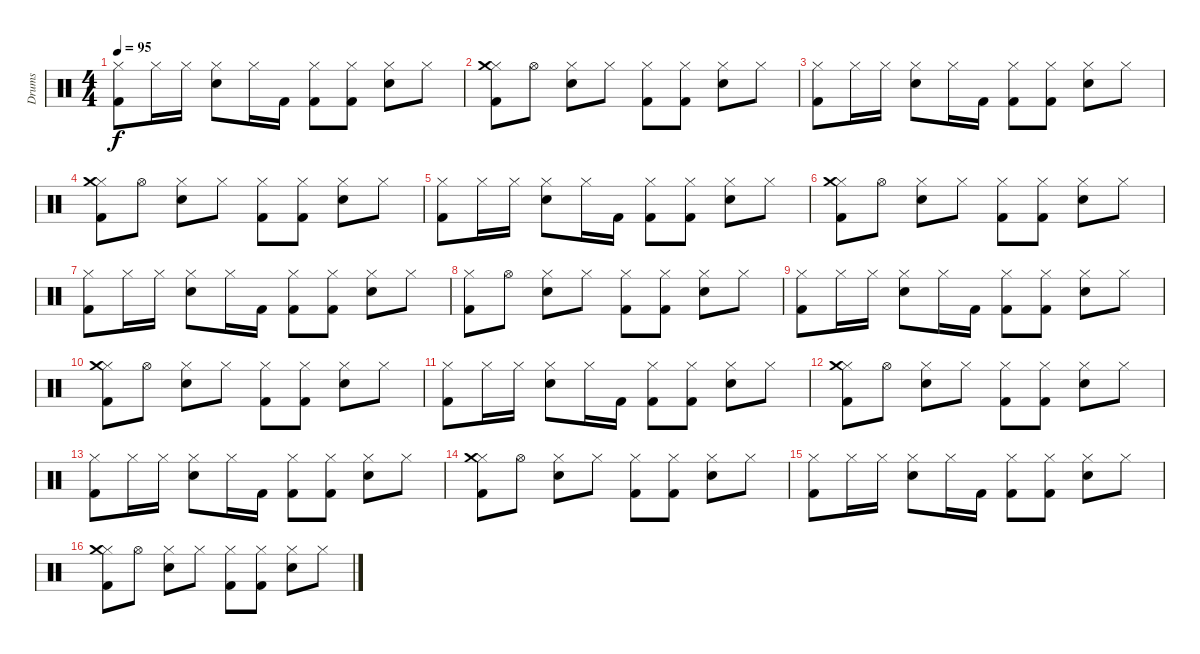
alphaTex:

\track ("Drums" "Drums") {instrument percussion}
\staff {score}
\articulation defaults
\ts (4 4)
\tempo 95
\clef neutral
\ks c
("Hi-Hat (closed)" "Kick (hit) 2").8{dy f} "Hi-Hat (closed)".16 "Hi-Hat (closed)".16 ("Hi-Hat (closed)" "Snare (hit) 2").8 "Hi-Hat (closed)".16 "Kick (hit) 2".16 ("Hi-Hat (closed)" "Kick (hit) 2").8 ("Hi-Hat (closed)" "Kick (hit) 2").8 ("Hi-Hat (closed)" "Snare (hit) 2").8 "Hi-Hat (closed)".8 |
("Hi-Hat (closed)" "Crash medium (hit)" "Kick (hit) 2").8 "Hi-Hat (open)".8 ("Hi-Hat (closed)" "Snare (hit) 2").8 "Hi-Hat (closed)".8 ("Hi-Hat (closed)" "Kick (hit) 2").8 ("Hi-Hat (closed)" "Kick (hit) 2").8 ("Hi-Hat (closed)" "Snare (hit) 2").8 "Hi-Hat (closed)".8 |
("Hi-Hat (closed)" "Kick (hit) 2").8 "Hi-Hat (closed)".16 "Hi-Hat (closed)".16 ("Hi-Hat (closed)" "Snare (hit) 2").8 "Hi-Hat (closed)".16 "Kick (hit) 2".16 ("Hi-Hat (closed)" "Kick (hit) 2").8 ("Hi-Hat (closed)" "Kick (hit) 2").8 ("Hi-Hat (closed)" "Snare (hit) 2").8 "Hi-Hat (closed)".8 |
("Hi-Hat (closed)" "Crash medium (hit)" "Kick (hit) 2").8 "Hi-Hat (open)".8 ("Hi-Hat (closed)" "Snare (hit) 2").8 "Hi-Hat (closed)".8 ("Hi-Hat (closed)" "Kick (hit) 2").8 ("Hi-Hat (closed)" "Kick (hit) 2").8 ("Hi-Hat (closed)" "Snare (hit) 2").8 "Hi-Hat (closed)".8 |
("Hi-Hat (closed)" "Kick (hit) 2").8 "Hi-Hat (closed)".16 "Hi-Hat (closed)".16 ("Hi-Hat (closed)" "Snare (hit) 2").8 "Hi-Hat (closed)".16 "Kick (hit) 2".16 ("Hi-Hat (closed)" "Kick (hit) 2").8 ("Hi-Hat (closed)" "Kick (hit) 2").8 ("Hi-Hat (closed)" "Snare (hit) 2").8 "Hi-Hat (closed)".8 |
("Hi-Hat (closed)" "Crash medium (hit)" "Kick (hit) 2").8 "Hi-Hat (open)".8 ("Hi-Hat (closed)" "Snare (hit) 2").8 "Hi-Hat (closed)".8 ("Hi-Hat (closed)" "Kick (hit) 2").8 ("Hi-Hat (closed)" "Kick (hit) 2").8 ("Hi-Hat (closed)" "Snare (hit) 2").8 "Hi-Hat (closed)".8 |
("Hi-Hat (closed)" "Kick (hit) 2").8 "Hi-Hat (closed)".16 "Hi-Hat (closed)".16 ("Hi-Hat (closed)" "Snare (hit) 2").8 "Hi-Hat (closed)".16 "Kick (hit) 2".16 ("Hi-Hat (closed)" "Kick (hit) 2").8 ("Hi-Hat (closed)" "Kick (hit) 2").8 ("Hi-Hat (closed)" "Snare (hit) 2").8 "Hi-Hat (closed)".8 |
("Hi-Hat (closed)" "Kick (hit) 2").8 "Hi-Hat (open)".8 ("Hi-Hat (closed)" "Snare (hit) 2").8 "Hi-Hat (closed)".8 ("Hi-Hat (closed)" "Kick (hit) 2").8 ("Hi-Hat (closed)" "Kick (hit) 2").8 ("Hi-Hat (closed)" "Snare (hit) 2").8 "Hi-Hat (closed)".8 |
("Hi-Hat (closed)" "Kick (hit) 2").8 "Hi-Hat (closed)".16 "Hi-Hat (closed)".16 ("Hi-Hat (closed)" "Snare (hit) 2").8 "Hi-Hat (closed)".16 "Kick (hit) 2".16 ("Hi-Hat (closed)" "Kick (hit) 2").8 ("Hi-Hat (closed)" "Kick (hit) 2").8 ("Hi-Hat (closed)" "Snare (hit) 2").8 "Hi-Hat (closed)".8 |
("Hi-Hat (closed)" "Crash medium (hit)" "Kick (hit) 2").8 "Hi-Hat (open)".8 ("Hi-Hat (closed)" "Snare (hit) 2").8 "Hi-Hat (closed)".8 ("Hi-Hat (closed)" "Kick (hit) 2").8 ("Hi-Hat (closed)" "Kick (hit) 2").8 ("Hi-Hat (closed)" "Snare (hit) 2").8 "Hi-Hat (closed)".8 |
("Hi-Hat (closed)" "Kick (hit) 2").8 "Hi-Hat (closed)".16 "Hi-Hat (closed)".16 ("Hi-Hat (closed)" "Snare (hit) 2").8 "Hi-Hat (closed)".16 "Kick (hit) 2".16 ("Hi-Hat (closed)" "Kick (hit) 2").8 ("Hi-Hat (closed)" "Kick (hit) 2").8 ("Hi-Hat (closed)" "Snare (hit) 2").8 "Hi-Hat (closed)".8 |
("Hi-Hat (closed)" "Crash medium (hit)" "Kick (hit) 2").8 "Hi-Hat (open)".8 ("Hi-Hat (closed)" "Snare (hit) 2").8 "Hi-Hat (closed)".8 ("Hi-Hat (closed)" "Kick (hit) 2").8 ("Hi-Hat (closed)" "Kick (hit) 2").8 ("Hi-Hat (closed)" "Snare (hit) 2").8 "Hi-Hat (closed)".8 |
("Hi-Hat (closed)" "Kick (hit) 2").8 "Hi-Hat (closed)".16 "Hi-Hat (closed)".16 ("Hi-Hat (closed)" "Snare (hit) 2").8 "Hi-Hat (closed)".16 "Kick (hit) 2".16 ("Hi-Hat (closed)" "Kick (hit) 2").8 ("Hi-Hat (closed)" "Kick (hit) 2").8 ("Hi-Hat (closed)" "Snare (hit) 2").8 "Hi-Hat (closed)".8 |
("Hi-Hat (closed)" "Crash medium (hit)" "Kick (hit) 2").8 "Hi-Hat (open)".8 ("Hi-Hat (closed)" "Snare (hit) 2").8 "Hi-Hat (closed)".8 ("Hi-Hat (closed)" "Kick (hit) 2").8 ("Hi-Hat (closed)" "Kick (hit) 2").8 ("Hi-Hat (closed)" "Snare (hit) 2").8 "Hi-Hat (closed)".8 |
("Hi-Hat (closed)" "Kick (hit) 2").8 "Hi-Hat (closed)".16 "Hi-Hat (closed)".16 ("Hi-Hat (closed)" "Snare (hit) 2").8 "Hi-Hat (closed)".16 "Kick (hit) 2".16 ("Hi-Hat (closed)" "Kick (hit) 2").8 ("Hi-Hat (closed)" "Kick (hit) 2").8 ("Hi-Hat (closed)" "Snare (hit) 2").8 "Hi-Hat (closed)".8 |
("Hi-Hat (closed)" "Crash medium (hit)" "Kick (hit) 2").8 "Hi-Hat (open)".8 ("Hi-Hat (closed)" "Snare (hit) 2").8 "Hi-Hat (closed)".8 ("Hi-Hat (closed)" "Kick (hit) 2").8 ("Hi-Hat (closed)" "Kick (hit) 2").8 ("Hi-Hat (closed)" "Snare (hit) 2").8 "Hi-Hat (closed)".8
